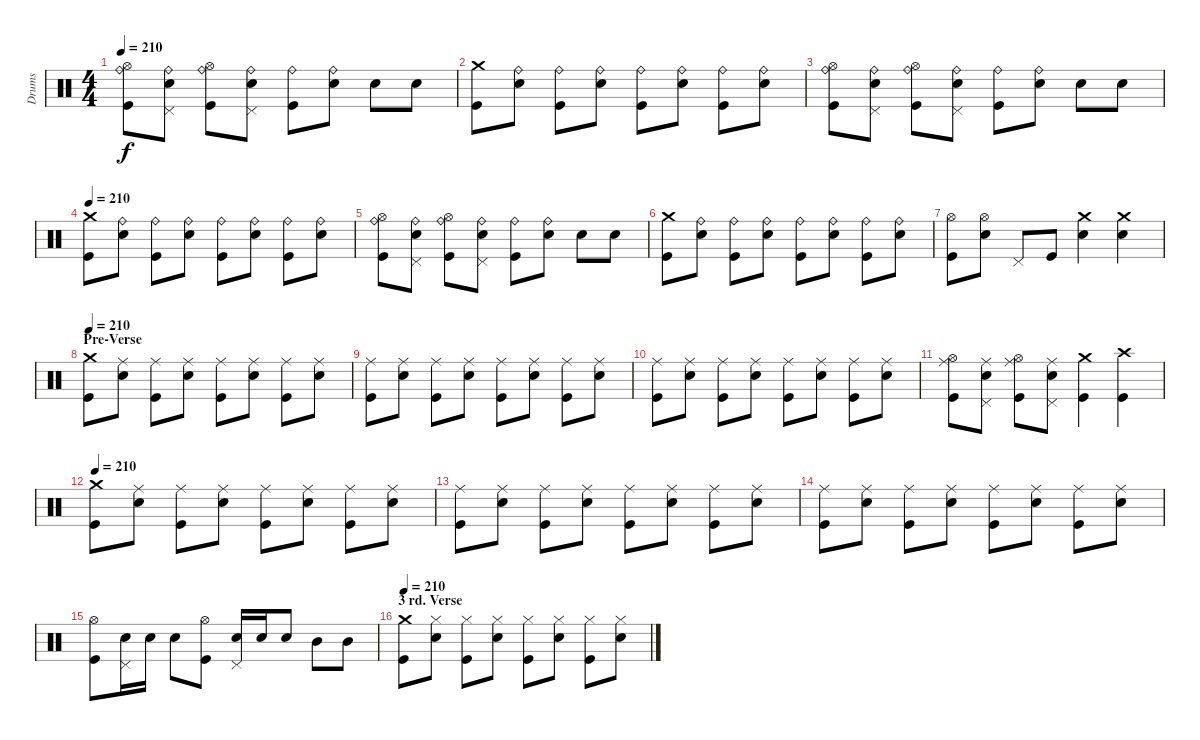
\track ("Drums" "Drums") {instrument percussion}
\staff {score}
\articulation defaults
\ts (4 4)
\tempo 210
\clef neutral
\ks c
("Ride (bell)" "Hi-Hat (open)" "Kick (hit)").8{dy f} ("Ride (bell)" "Pedal Hi-Hat (hit)" "Electric Snare (hit)").8 ("Ride (bell)" "Hi-Hat (open)" "Kick (hit)").8 ("Ride (bell)" "Pedal Hi-Hat (hit)" "Electric Snare (hit)").8 ("Ride (bell)" "Kick (hit)").8 ("Ride (bell)" "Electric Snare (hit)").8 "Electric Snare (hit)".8 "Electric Snare (hit)".8 |
("Crash medium (hit)" "Kick (hit)").8 ("Ride (bell)" "Electric Snare (hit)").8 ("Ride (bell)" "Kick (hit)").8 ("Ride (bell)" "Electric Snare (hit)").8 ("Ride (bell)" "Kick (hit)").8 ("Ride (bell)" "Electric Snare (hit)").8 ("Ride (bell)" "Kick (hit)").8 ("Ride (bell)" "Electric Snare (hit)").8 |
("Ride (bell)" "Hi-Hat (open)" "Kick (hit)").8 ("Ride (bell)" "Pedal Hi-Hat (hit)" "Electric Snare (hit)").8 ("Ride (bell)" "Hi-Hat (open)" "Kick (hit)").8 ("Ride (bell)" "Pedal Hi-Hat (hit)" "Electric Snare (hit)").8 ("Ride (bell)" "Kick (hit)").8 ("Ride (bell)" "Electric Snare (hit)").8 "Electric Snare (hit)".8 "Electric Snare (hit)".8 |
\tempo 210
("Crash medium (hit)" "Kick (hit)").8 ("Ride (bell)" "Electric Snare (hit)").8 ("Ride (bell)" "Kick (hit)").8 ("Ride (bell)" "Electric Snare (hit)").8 ("Ride (bell)" "Kick (hit)").8 ("Ride (bell)" "Electric Snare (hit)").8 ("Ride (bell)" "Kick (hit)").8 ("Ride (bell)" "Electric Snare (hit)").8 |
("Ride (bell)" "Hi-Hat (open)" "Kick (hit)").8 ("Ride (bell)" "Pedal Hi-Hat (hit)" "Electric Snare (hit)").8 ("Ride (bell)" "Hi-Hat (open)" "Kick (hit)").8 ("Ride (bell)" "Pedal Hi-Hat (hit)" "Electric Snare (hit)").8 ("Ride (bell)" "Kick (hit)").8 ("Ride (bell)" "Electric Snare (hit)").8 "Electric Snare (hit)".8 "Electric Snare (hit)".8 |
("Crash medium (hit)" "Kick (hit)").8 ("Ride (bell)" "Electric Snare (hit)").8 ("Ride (bell)" "Kick (hit)").8 ("Ride (bell)" "Electric Snare (hit)").8 ("Ride (bell)" "Kick (hit)").8 ("Ride (bell)" "Electric Snare (hit)").8 ("Ride (bell)" "Kick (hit)").8 ("Ride (bell)" "Electric Snare (hit)").8 |
("Hi-Hat (open)" "Kick (hit)").8 ("Hi-Hat (open)" "Electric Snare (hit)").8 "Pedal Hi-Hat (hit)".8 "Kick (hit)".8 ("Crash medium (hit)" "Electric Snare (hit)").4 ("Crash medium (hit)" "Electric Snare (hit)").4 |
\section ("" "Pre-Verse")
\tempo 210
("Crash medium (hit)" "Kick (hit)").8 ("Ride (middle)" "Electric Snare (hit)").8 ("Ride (middle)" "Kick (hit)").8 ("Ride (middle)" "Electric Snare (hit)").8 ("Ride (middle)" "Kick (hit)").8 ("Ride (middle)" "Electric Snare (hit)").8 ("Ride (middle)" "Kick (hit)").8 ("Ride (middle)" "Electric Snare (hit)").8 |
("Ride (middle)" "Kick (hit)").8 ("Ride (middle)" "Electric Snare (hit)").8 ("Ride (middle)" "Kick (hit)").8 ("Ride (middle)" "Electric Snare (hit)").8 ("Ride (middle)" "Kick (hit)").8 ("Ride (middle)" "Electric Snare (hit)").8 ("Ride (middle)" "Kick (hit)").8 ("Ride (middle)" "Electric Snare (hit)").8 |
("Ride (middle)" "Kick (hit)").8 ("Ride (middle)" "Electric Snare (hit)").8 ("Ride (middle)" "Kick (hit)").8 ("Ride (middle)" "Electric Snare (hit)").8 ("Ride (middle)" "Kick (hit)").8 ("Ride (middle)" "Electric Snare (hit)").8 ("Ride (middle)" "Kick (hit)").8 ("Ride (middle)" "Electric Snare (hit)").8 |
("Ride (middle)" "Hi-Hat (open)" "Kick (hit)").8 ("Ride (middle)" "Pedal Hi-Hat (hit)" "Electric Snare (hit)").8 ("Ride (middle)" "Hi-Hat (open)" "Kick (hit)").8 ("Ride (middle)" "Pedal Hi-Hat (hit)" "Electric Snare (hit)").8 ("Crash medium (hit)" "Kick (hit)").4 ("Crash high (hit)" "Kick (hit)").4 |
\tempo 210
("Crash medium (hit)" "Kick (hit)").8 ("Ride (middle)" "Electric Snare (hit)").8 ("Ride (middle)" "Kick (hit)").8 ("Ride (middle)" "Electric Snare (hit)").8 ("Ride (middle)" "Kick (hit)").8 ("Ride (middle)" "Electric Snare (hit)").8 ("Ride (middle)" "Kick (hit)").8 ("Ride (middle)" "Electric Snare (hit)").8 |
("Ride (middle)" "Kick (hit)").8 ("Ride (middle)" "Electric Snare (hit)").8 ("Ride (middle)" "Kick (hit)").8 ("Ride (middle)" "Electric Snare (hit)").8 ("Ride (middle)" "Kick (hit)").8 ("Ride (middle)" "Electric Snare (hit)").8 ("Ride (middle)" "Kick (hit)").8 ("Ride (middle)" "Electric Snare (hit)").8 |
("Ride (middle)" "Kick (hit)").8 ("Ride (middle)" "Electric Snare (hit)").8 ("Ride (middle)" "Kick (hit)").8 ("Ride (middle)" "Electric Snare (hit)").8 ("Ride (middle)" "Kick (hit)").8 ("Ride (middle)" "Electric Snare (hit)").8 ("Ride (middle)" "Kick (hit)").8 ("Ride (middle)" "Electric Snare (hit)").8 |
("Hi-Hat (open)" "Kick (hit)").8 ("Pedal Hi-Hat (hit)" "Electric Snare (hit)").16 "Electric Snare (hit)".16 "Electric Snare (hit)".8 ("Hi-Hat (open)" "Kick (hit)").8 ("Pedal Hi-Hat (hit)" "Electric Snare (hit)").16 "Electric Snare (hit)".16 "Electric Snare (hit)".8 "Mid Tom (hit)".8 "Mid Tom (hit)".8 |
\section ("" "3 rd. Verse")
\tempo 210
("Crash medium (hit)" "Kick (hit)").8 ("Hi-Hat (closed)" "Electric Snare (hit)").8 ("Hi-Hat (closed)" "Kick (hit)").8 ("Hi-Hat (closed)" "Electric Snare (hit)").8 ("Hi-Hat (closed)" "Kick (hit)").8 ("Hi-Hat (closed)" "Electric Snare (hit)").8 ("Hi-Hat (closed)" "Kick (hit)").8 ("Hi-Hat (closed)" "Electric Snare (hit)").8
